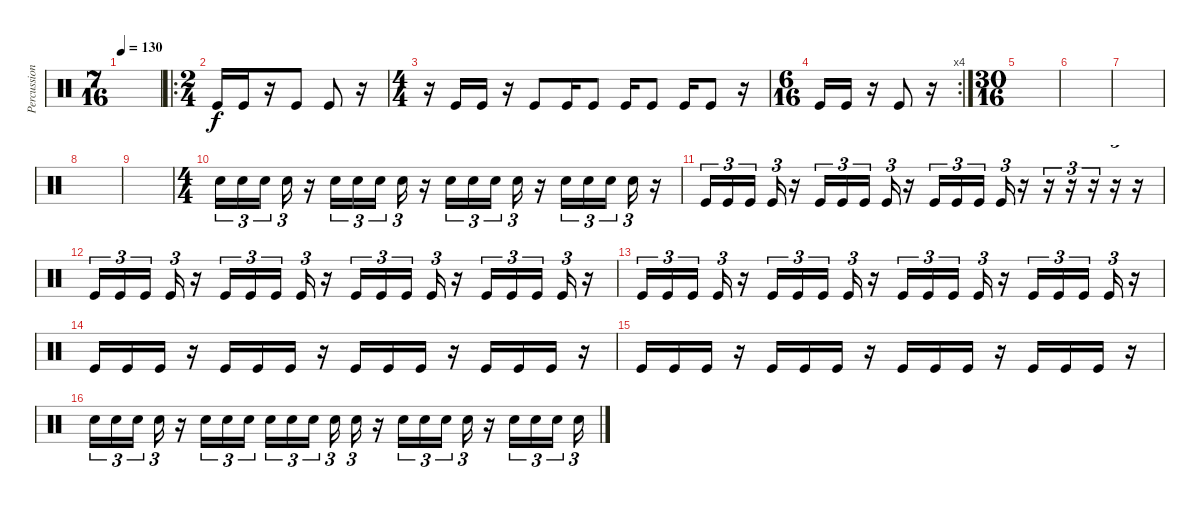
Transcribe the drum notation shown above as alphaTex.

\track ("Percussion" "Percussion") {instrument percussion}
\staff {score}
\articulation defaults
\ts (7 16)
\tempo 130
\clef neutral
\ks c
|
\ro
\ts (2 4)
"Kick (hit)".16 "Kick (hit)".16 r.16 "Kick (hit)".8 "Kick (hit)".8 r.16 |
\ts (4 4)
r.16 "Kick (hit)".16 "Kick (hit)".16 r.16 "Kick (hit)".8 "Kick (hit)".16 "Kick (hit)".8 "Kick (hit)".16 "Kick (hit)".8 "Kick (hit)".16 "Kick (hit)".8 r.16 |
\rc 4
\ts (6 16)
"Kick (hit)".16 "Kick (hit)".16 r.16 "Kick (hit)".8 r.16 |
\ts (30 16)
|
|
|
|
|
\ts (4 4)
"Electric Snare (hit)".16{tu (3 2)} "Electric Snare (hit)".16{tu (3 2)} "Electric Snare (hit)".16{tu (3 2) beam splitsecondary} "Electric Snare (hit)".16{tu (3 2)} r.16 "Electric Snare (hit)".16{tu (3 2)} "Electric Snare (hit)".16{tu (3 2)} "Electric Snare (hit)".16{tu (3 2) beam splitsecondary} "Electric Snare (hit)".16{tu (3 2)} r.16 "Electric Snare (hit)".16{tu (3 2)} "Electric Snare (hit)".16{tu (3 2)} "Electric Snare (hit)".16{tu (3 2) beam splitsecondary} "Electric Snare (hit)".16{tu (3 2)} r.16 "Electric Snare (hit)".16{tu (3 2)} "Electric Snare (hit)".16{tu (3 2)} "Electric Snare (hit)".16{tu (3 2)} "Electric Snare (hit)".16{tu (3 2)} r.16 |
"Kick (hit)".16{tu (3 2)} "Kick (hit)".16{tu (3 2)} "Kick (hit)".16{tu (3 2) beam splitsecondary} "Kick (hit)".16{tu (3 2)} r.16 "Kick (hit)".16{tu (3 2)} "Kick (hit)".16{tu (3 2)} "Kick (hit)".16{tu (3 2) beam splitsecondary} "Kick (hit)".16{tu (3 2)} r.16 "Kick (hit)".16{tu (3 2)} "Kick (hit)".16{tu (3 2)} "Kick (hit)".16{tu (3 2) beam splitsecondary} "Kick (hit)".16{tu (3 2)} r.16 r.16{tu (3 2)} r.16{tu (3 2)} r.16{tu (3 2)} r.16{tu (3 2)} r.16 |
"Kick (hit)".16{tu (3 2)} "Kick (hit)".16{tu (3 2)} "Kick (hit)".16{tu (3 2) beam splitsecondary} "Kick (hit)".16{tu (3 2)} r.16 "Kick (hit)".16{tu (3 2)} "Kick (hit)".16{tu (3 2)} "Kick (hit)".16{tu (3 2) beam splitsecondary} "Kick (hit)".16{tu (3 2)} r.16 "Kick (hit)".16{tu (3 2)} "Kick (hit)".16{tu (3 2)} "Kick (hit)".16{tu (3 2) beam splitsecondary} "Kick (hit)".16{tu (3 2)} r.16 "Kick (hit)".16{tu (3 2)} "Kick (hit)".16{tu (3 2)} "Kick (hit)".16{tu (3 2)} "Kick (hit)".16{tu (3 2)} r.16 |
"Kick (hit)".16{tu (3 2)} "Kick (hit)".16{tu (3 2)} "Kick (hit)".16{tu (3 2) beam splitsecondary} "Kick (hit)".16{tu (3 2)} r.16 "Kick (hit)".16{tu (3 2)} "Kick (hit)".16{tu (3 2)} "Kick (hit)".16{tu (3 2) beam splitsecondary} "Kick (hit)".16{tu (3 2)} r.16 "Kick (hit)".16{tu (3 2)} "Kick (hit)".16{tu (3 2)} "Kick (hit)".16{tu (3 2) beam splitsecondary} "Kick (hit)".16{tu (3 2)} r.16 "Kick (hit)".16{tu (3 2)} "Kick (hit)".16{tu (3 2)} "Kick (hit)".16{tu (3 2)} "Kick (hit)".16{tu (3 2)} r.16 |
"Kick (hit)".16 "Kick (hit)".16 "Kick (hit)".16 r.16 "Kick (hit)".16 "Kick (hit)".16 "Kick (hit)".16 r.16 "Kick (hit)".16 "Kick (hit)".16 "Kick (hit)".16 r.16 "Kick (hit)".16 "Kick (hit)".16 "Kick (hit)".16 r.16 |
"Kick (hit)".16 "Kick (hit)".16 "Kick (hit)".16 r.16 "Kick (hit)".16 "Kick (hit)".16 "Kick (hit)".16 r.16 "Kick (hit)".16 "Kick (hit)".16 "Kick (hit)".16 r.16 "Kick (hit)".16 "Kick (hit)".16 "Kick (hit)".16 r.16 |
"Electric Snare (hit)".16{tu (3 2)} "Electric Snare (hit)".16{tu (3 2)} "Electric Snare (hit)".16{tu (3 2) beam splitsecondary} "Electric Snare (hit)".16{tu (3 2)} r.16 "Electric Snare (hit)".16{tu (3 2)} "Electric Snare (hit)".16{tu (3 2)} "Electric Snare (hit)".16{tu (3 2) beam splitsecondary} "Electric Snare (hit)".16{tu (3 2)} "Electric Snare (hit)".16{tu (3 2)} "Electric Snare (hit)".16{tu (3 2) beam splitsecondary} "Electric Snare (hit)".16{tu (3 2)} "Electric Snare (hit)".16{tu (3 2)} r.16 "Electric Snare (hit)".16{tu (3 2)} "Electric Snare (hit)".16{tu (3 2)} "Electric Snare (hit)".16{tu (3 2)} "Electric Snare (hit)".16{tu (3 2)} r.16 "Electric Snare (hit)".16{tu (3 2)} "Electric Snare (hit)".16{tu (3 2)} "Electric Snare (hit)".16{tu (3 2) beam splitsecondary} "Electric Snare (hit)".16{tu (3 2)}
